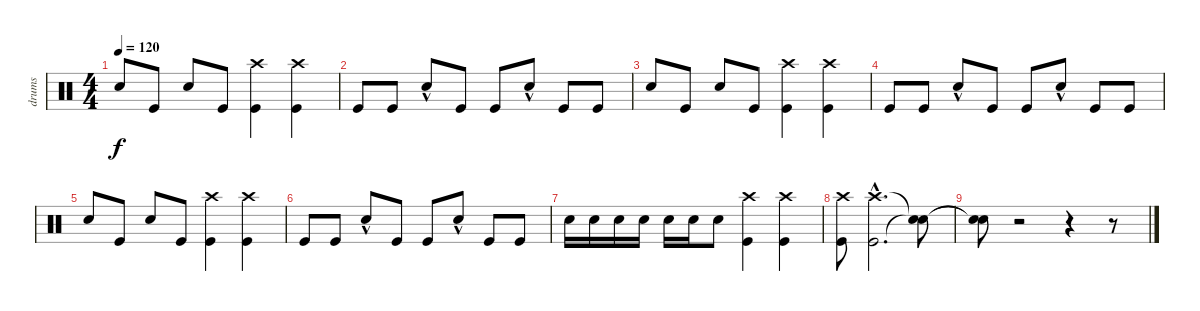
\track ("drums" "drums") {instrument percussion}
\staff {score}
\articulation defaults
\ts (4 4)
\tempo 120
\clef neutral
\ks c "Snare (hit) 2".8{dy f} "Kick (hit)".8 "Snare (hit) 2".8 "Kick (hit)".8
("Kick (hit)" "Crash high (hit)").4 ("Kick (hit)" "Crash high (hit)").4 |
"Kick (hit)".8 "Kick (hit)".8 "Snare (hit) 2"{hac}.8 "Kick (hit)".8 "Kick (hit)".8 "Snare (hit) 2"{hac}.8 "Kick (hit)".8 "Kick (hit)".8 |
"Snare (hit) 2".8 "Kick (hit)".8 "Snare (hit) 2".8 "Kick (hit)".8 ("Kick (hit)" "Crash high (hit)").4 ("Kick (hit)" "Crash high (hit)").4 |
"Kick (hit)".8 "Kick (hit)".8 "Snare (hit) 2"{hac}.8 "Kick (hit)".8 "Kick (hit)".8 "Snare (hit) 2"{hac}.8 "Kick (hit)".8 "Kick (hit)".8 |
"Snare (hit) 2".8 "Kick (hit)".8 "Snare (hit) 2".8 "Kick (hit)".8 ("Kick (hit)" "Crash high (hit)").4 ("Kick (hit)" "Crash high (hit)").4 |
"Kick (hit)".8 "Kick (hit)".8 "Snare (hit) 2"{hac}.8 "Kick (hit)".8 "Kick (hit)".8 "Snare (hit) 2"{hac}.8 "Kick (hit)".8 "Kick (hit)".8 |
"Snare (hit) 2".16 "Snare (hit) 2".16 "Snare (hit) 2".16 "Snare (hit) 2".16 "Snare (hit) 2".16 "Snare (hit) 2".16 "Snare (hit) 2".8 ("Kick (hit)" "Crash high (hit)").4 ("Kick (hit)" "Crash high (hit)").4 |
("Kick (hit)" "Crash high (hit)").8 ("Kick (hit)"{hac} "Crash high (hit)"{hac}).2{d} ("Snare (hit)"{t} "Snare (hit)"{t}).8 |
("Snare (hit)"{t} "Snare (hit)"{t}).8 r.2 r.4 r.8
